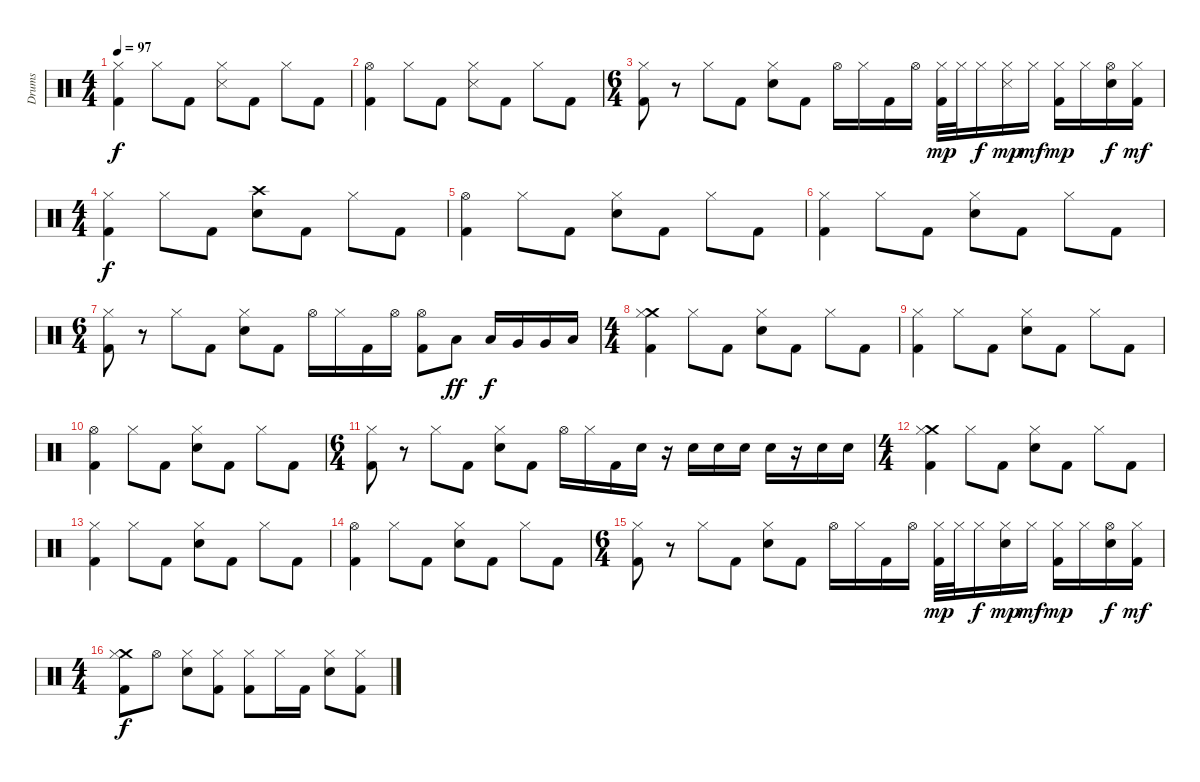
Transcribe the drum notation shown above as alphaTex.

\track ("Drums" "Drums") {instrument percussion}
\staff {score}
\articulation defaults
\ts (4 4)
\tempo 97
\clef neutral
\ks c
("Hi-Hat (closed)" "Kick (hit) 2").4{dy f} "Hi-Hat (closed)".8 "Kick (hit) 2".8 ("Hi-Hat (closed)" "Snare (side stick) 3").8 "Kick (hit) 2".8 "Hi-Hat (closed)".8 "Kick (hit) 2".8 |
("Hi-Hat (open)" "Kick (hit) 2").4 "Hi-Hat (closed)".8 "Kick (hit) 2".8 ("Hi-Hat (closed)" "Snare (side stick) 3").8 "Kick (hit) 2".8 "Hi-Hat (closed)".8 "Kick (hit) 2".8 |
\ts (6 4)
("Hi-Hat (closed)" "Kick (hit) 2").8 r.8 "Hi-Hat (closed)".8 "Kick (hit) 2".8 ("Hi-Hat (closed)" "Snare (hit) 2").8 "Kick (hit) 2".8 "Hi-Hat (open)".16 "Hi-Hat (closed)".16 "Kick (hit) 2".16 "Hi-Hat (open)".16 ("Hi-Hat (closed)" "Kick (hit) 2").32{dy mp} "Hi-Hat (closed)".32 "Hi-Hat (closed)".16{dy f} ("Hi-Hat (closed)" "Snare (side stick) 3").16{dy mp} "Hi-Hat (closed)".16{dy mf} ("Hi-Hat (closed)" "Kick (hit) 2").16{dy mp} "Hi-Hat (closed)".16 ("Hi-Hat (open)" "Snare (hit) 2").16{dy f} ("Hi-Hat (closed)" "Kick (hit) 2").16{dy mf} |
\ts (4 4)
("Hi-Hat (closed)" "Kick (hit) 2").4{dy f} "Hi-Hat (closed)".8 "Kick (hit) 2".8 ("Crash high (hit)" "Snare (hit) 2").8 "Kick (hit) 2".8 "Hi-Hat (closed)".8 "Kick (hit) 2".8 |
("Hi-Hat (open)" "Kick (hit) 2").4 "Hi-Hat (closed)".8 "Kick (hit) 2".8 ("Hi-Hat (closed)" "Snare (hit) 2").8 "Kick (hit) 2".8 "Hi-Hat (closed)".8 "Kick (hit) 2".8 |
("Hi-Hat (closed)" "Kick (hit) 2").4 "Hi-Hat (closed)".8 "Kick (hit) 2".8 ("Hi-Hat (closed)" "Snare (hit) 2").8 "Kick (hit) 2".8 "Hi-Hat (closed)".8 "Kick (hit) 2".8 |
\ts (6 4)
("Hi-Hat (closed)" "Kick (hit) 2").8 r.8 "Hi-Hat (closed)".8 "Kick (hit) 2".8 ("Hi-Hat (closed)" "Snare (hit) 2").8 "Kick (hit) 2".8 "Hi-Hat (open)".16 "Hi-Hat (closed)".16 "Kick (hit) 2".16 "Hi-Hat (open)".16 ("Hi-Hat (open)" "Kick (hit) 2").8 "Low Tom (hit)".8{dy ff} "Low Tom (hit)".16{dy f} "Very Low Tom (hit)".16 "Very Low Tom (hit)".16 "Low Floor Tom (hit)".16 |
\ts (4 4)
("Crash medium (hit)" "Hi-Hat (closed)" "Kick (hit) 2").4 "Hi-Hat (closed)".8 "Kick (hit) 2".8 ("Hi-Hat (closed)" "Snare (hit) 2").8 "Kick (hit) 2".8 "Hi-Hat (closed)".8 "Kick (hit) 2".8 |
("Hi-Hat (closed)" "Kick (hit) 2").4 "Hi-Hat (closed)".8 "Kick (hit) 2".8 ("Hi-Hat (closed)" "Snare (hit) 2").8 "Kick (hit) 2".8 "Hi-Hat (closed)".8 "Kick (hit) 2".8 |
("Hi-Hat (open)" "Kick (hit) 2").4 "Hi-Hat (closed)".8 "Kick (hit) 2".8 ("Hi-Hat (closed)" "Snare (hit) 2").8 "Kick (hit) 2".8 "Hi-Hat (closed)".8 "Kick (hit) 2".8 |
\ts (6 4)
("Hi-Hat (closed)" "Kick (hit) 2").8 r.8 "Hi-Hat (closed)".8 "Kick (hit) 2".8 ("Hi-Hat (closed)" "Snare (hit) 2").8 "Kick (hit) 2".8 "Hi-Hat (open)".16 "Hi-Hat (closed)".16 "Kick (hit) 2".16 "Snare (hit) 2".16 r.16 "Snare (hit) 2".16 "Snare (hit) 2".16 "Snare (hit) 2".16 "Snare (hit) 2".16 r.16 "Snare (hit) 2".16 "Snare (hit) 2".16 |
\ts (4 4)
("Crash medium (hit)" "Hi-Hat (closed)" "Kick (hit) 2").4 "Hi-Hat (closed)".8 "Kick (hit) 2".8 ("Hi-Hat (closed)" "Snare (hit) 2").8 "Kick (hit) 2".8 "Hi-Hat (closed)".8 "Kick (hit) 2".8 |
("Hi-Hat (closed)" "Kick (hit) 2").4 "Hi-Hat (closed)".8 "Kick (hit) 2".8 ("Hi-Hat (closed)" "Snare (hit) 2").8 "Kick (hit) 2".8 "Hi-Hat (closed)".8 "Kick (hit) 2".8 |
("Hi-Hat (open)" "Kick (hit) 2").4 "Hi-Hat (closed)".8 "Kick (hit) 2".8 ("Hi-Hat (closed)" "Snare (hit) 2").8 "Kick (hit) 2".8 "Hi-Hat (closed)".8 "Kick (hit) 2".8 |
\ts (6 4)
("Hi-Hat (closed)" "Kick (hit) 2").8 r.8 "Hi-Hat (closed)".8 "Kick (hit) 2".8 ("Hi-Hat (closed)" "Snare (hit) 2").8 "Kick (hit) 2".8 "Hi-Hat (open)".16 "Hi-Hat (closed)".16 "Kick (hit) 2".16 "Hi-Hat (open)".16 ("Hi-Hat (closed)" "Kick (hit) 2").32{dy mp} "Hi-Hat (closed)".32 "Hi-Hat (closed)".16{dy f} ("Hi-Hat (closed)" "Snare (hit) 2").16{dy mp} "Hi-Hat (closed)".16{dy mf} ("Hi-Hat (closed)" "Kick (hit) 2").16{dy mp} "Hi-Hat (closed)".16 ("Hi-Hat (open)" "Snare (hit) 2").16{dy f} ("Hi-Hat (closed)" "Kick (hit) 2").16{dy mf} |
\ts (4 4)
("Crash medium (hit)" "Hi-Hat (closed)" "Kick (hit) 2").8{dy f} "Hi-Hat (open)".8 ("Hi-Hat (closed)" "Snare (hit) 2").8 ("Hi-Hat (closed)" "Kick (hit) 2").8 ("Hi-Hat (closed)" "Kick (hit) 2").8 "Hi-Hat (closed)".16 "Kick (hit) 2".16 ("Hi-Hat (closed)" "Snare (hit) 2").8 ("Hi-Hat (closed)" "Kick (hit) 2").8
